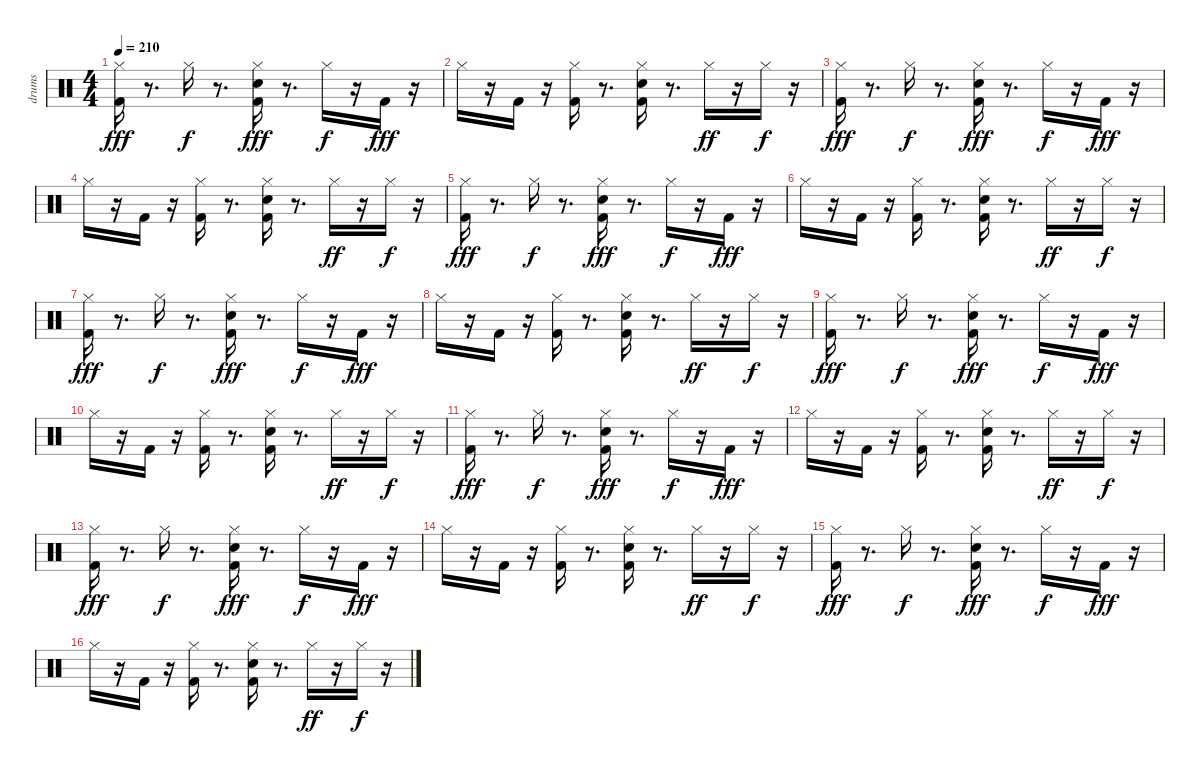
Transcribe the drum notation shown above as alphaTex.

\track ("drums" "drums") {instrument percussion}
\staff {score}
\articulation defaults
\ts (4 4)
\tempo 210
\clef neutral
\ks c
("Hi-Hat (closed)" "Kick (hit) 2").16{dy fff} r.8{d} "Hi-Hat (closed)".16{dy f} r.8{d} ("Electric Snare (hit)" "Hi-Hat (closed)" "Kick (hit) 2").16{dy fff} r.8{d} "Hi-Hat (closed)".16{dy f} r.16 "Kick (hit) 2".16{dy fff} r.16 |
"Hi-Hat (closed)".16 r.16 "Kick (hit) 2".16 r.16 ("Hi-Hat (closed)" "Kick (hit) 2").16 r.8{d} ("Electric Snare (hit)" "Hi-Hat (closed)" "Kick (hit) 2").16 r.8{d} "Hi-Hat (closed)".16{dy ff} r.16 "Hi-Hat (closed)".16{dy f} r.16 |
("Hi-Hat (closed)" "Kick (hit) 2").16{dy fff} r.8{d} "Hi-Hat (closed)".16{dy f} r.8{d} ("Electric Snare (hit)" "Hi-Hat (closed)" "Kick (hit) 2").16{dy fff} r.8{d} "Hi-Hat (closed)".16{dy f} r.16 "Kick (hit) 2".16{dy fff} r.16 |
"Hi-Hat (closed)".16 r.16 "Kick (hit) 2".16 r.16 ("Hi-Hat (closed)" "Kick (hit) 2").16 r.8{d} ("Electric Snare (hit)" "Hi-Hat (closed)" "Kick (hit) 2").16 r.8{d} "Hi-Hat (closed)".16{dy ff} r.16 "Hi-Hat (closed)".16{dy f} r.16 |
("Hi-Hat (closed)" "Kick (hit) 2").16{dy fff} r.8{d} "Hi-Hat (closed)".16{dy f} r.8{d} ("Electric Snare (hit)" "Hi-Hat (closed)" "Kick (hit) 2").16{dy fff} r.8{d} "Hi-Hat (closed)".16{dy f} r.16 "Kick (hit) 2".16{dy fff} r.16 |
"Hi-Hat (closed)".16 r.16 "Kick (hit) 2".16 r.16 ("Hi-Hat (closed)" "Kick (hit) 2").16 r.8{d} ("Electric Snare (hit)" "Hi-Hat (closed)" "Kick (hit) 2").16 r.8{d} "Hi-Hat (closed)".16{dy ff} r.16 "Hi-Hat (closed)".16{dy f} r.16 |
("Hi-Hat (closed)" "Kick (hit) 2").16{dy fff} r.8{d} "Hi-Hat (closed)".16{dy f} r.8{d} ("Electric Snare (hit)" "Hi-Hat (closed)" "Kick (hit) 2").16{dy fff} r.8{d} "Hi-Hat (closed)".16{dy f} r.16 "Kick (hit) 2".16{dy fff} r.16 |
"Hi-Hat (closed)".16 r.16 "Kick (hit) 2".16 r.16 ("Hi-Hat (closed)" "Kick (hit) 2").16 r.8{d} ("Electric Snare (hit)" "Hi-Hat (closed)" "Kick (hit) 2").16 r.8{d} "Hi-Hat (closed)".16{dy ff} r.16 "Hi-Hat (closed)".16{dy f} r.16 |
("Hi-Hat (closed)" "Kick (hit) 2").16{dy fff} r.8{d} "Hi-Hat (closed)".16{dy f} r.8{d} ("Electric Snare (hit)" "Hi-Hat (closed)" "Kick (hit) 2").16{dy fff} r.8{d} "Hi-Hat (closed)".16{dy f} r.16 "Kick (hit) 2".16{dy fff} r.16 |
"Hi-Hat (closed)".16 r.16 "Kick (hit) 2".16 r.16 ("Hi-Hat (closed)" "Kick (hit) 2").16 r.8{d} ("Electric Snare (hit)" "Hi-Hat (closed)" "Kick (hit) 2").16 r.8{d} "Hi-Hat (closed)".16{dy ff} r.16 "Hi-Hat (closed)".16{dy f} r.16 |
("Hi-Hat (closed)" "Kick (hit) 2").16{dy fff} r.8{d} "Hi-Hat (closed)".16{dy f} r.8{d} ("Electric Snare (hit)" "Hi-Hat (closed)" "Kick (hit) 2").16{dy fff} r.8{d} "Hi-Hat (closed)".16{dy f} r.16 "Kick (hit) 2".16{dy fff} r.16 |
"Hi-Hat (closed)".16 r.16 "Kick (hit) 2".16 r.16 ("Hi-Hat (closed)" "Kick (hit) 2").16 r.8{d} ("Electric Snare (hit)" "Hi-Hat (closed)" "Kick (hit) 2").16 r.8{d} "Hi-Hat (closed)".16{dy ff} r.16 "Hi-Hat (closed)".16{dy f} r.16 |
("Hi-Hat (closed)" "Kick (hit) 2").16{dy fff} r.8{d} "Hi-Hat (closed)".16{dy f} r.8{d} ("Electric Snare (hit)" "Hi-Hat (closed)" "Kick (hit) 2").16{dy fff} r.8{d} "Hi-Hat (closed)".16{dy f} r.16 "Kick (hit) 2".16{dy fff} r.16 |
"Hi-Hat (closed)".16 r.16 "Kick (hit) 2".16 r.16 ("Hi-Hat (closed)" "Kick (hit) 2").16 r.8{d} ("Electric Snare (hit)" "Hi-Hat (closed)" "Kick (hit) 2").16 r.8{d} "Hi-Hat (closed)".16{dy ff} r.16 "Hi-Hat (closed)".16{dy f} r.16 |
("Hi-Hat (closed)" "Kick (hit) 2").16{dy fff} r.8{d} "Hi-Hat (closed)".16{dy f} r.8{d} ("Electric Snare (hit)" "Hi-Hat (closed)" "Kick (hit) 2").16{dy fff} r.8{d} "Hi-Hat (closed)".16{dy f} r.16 "Kick (hit) 2".16{dy fff} r.16 |
"Hi-Hat (closed)".16 r.16 "Kick (hit) 2".16 r.16 ("Hi-Hat (closed)" "Kick (hit) 2").16 r.8{d} ("Electric Snare (hit)" "Hi-Hat (closed)" "Kick (hit) 2").16 r.8{d} "Hi-Hat (closed)".16{dy ff} r.16 "Hi-Hat (closed)".16{dy f} r.16
